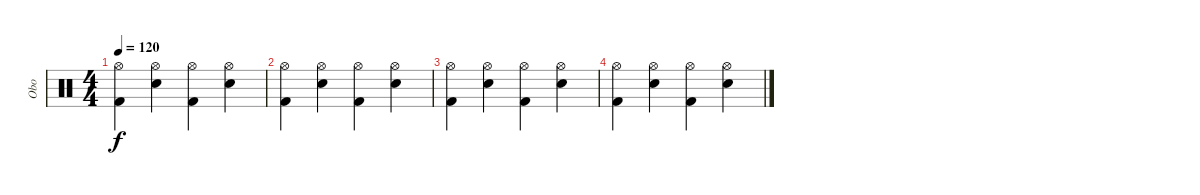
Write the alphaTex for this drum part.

\track ("Obo" "Obo") {instrument percussion}
\staff {score}
\articulation defaults
\ts (4 4)
\tempo 120
\clef neutral
\ks c
("Kick (hit) 2" "Hi-Hat (open)").4{dy f} ("Snare (hit) 2" "Hi-Hat (open)").4 ("Kick (hit) 2" "Hi-Hat (open)").4 ("Snare (hit) 2" "Hi-Hat (open)").4 |
("Kick (hit) 2" "Hi-Hat (open)").4 ("Snare (hit) 2" "Hi-Hat (open)").4 ("Kick (hit) 2" "Hi-Hat (open)").4 ("Snare (hit) 2" "Hi-Hat (open)").4 |
("Kick (hit) 2" "Hi-Hat (open)").4 ("Snare (hit) 2" "Hi-Hat (open)").4 ("Kick (hit) 2" "Hi-Hat (open)").4 ("Snare (hit) 2" "Hi-Hat (open)").4 |
("Kick (hit) 2" "Hi-Hat (open)").4 ("Snare (hit) 2" "Hi-Hat (open)").4 ("Kick (hit) 2" "Hi-Hat (open)").4 ("Snare (hit) 2" "Hi-Hat (open)").4
